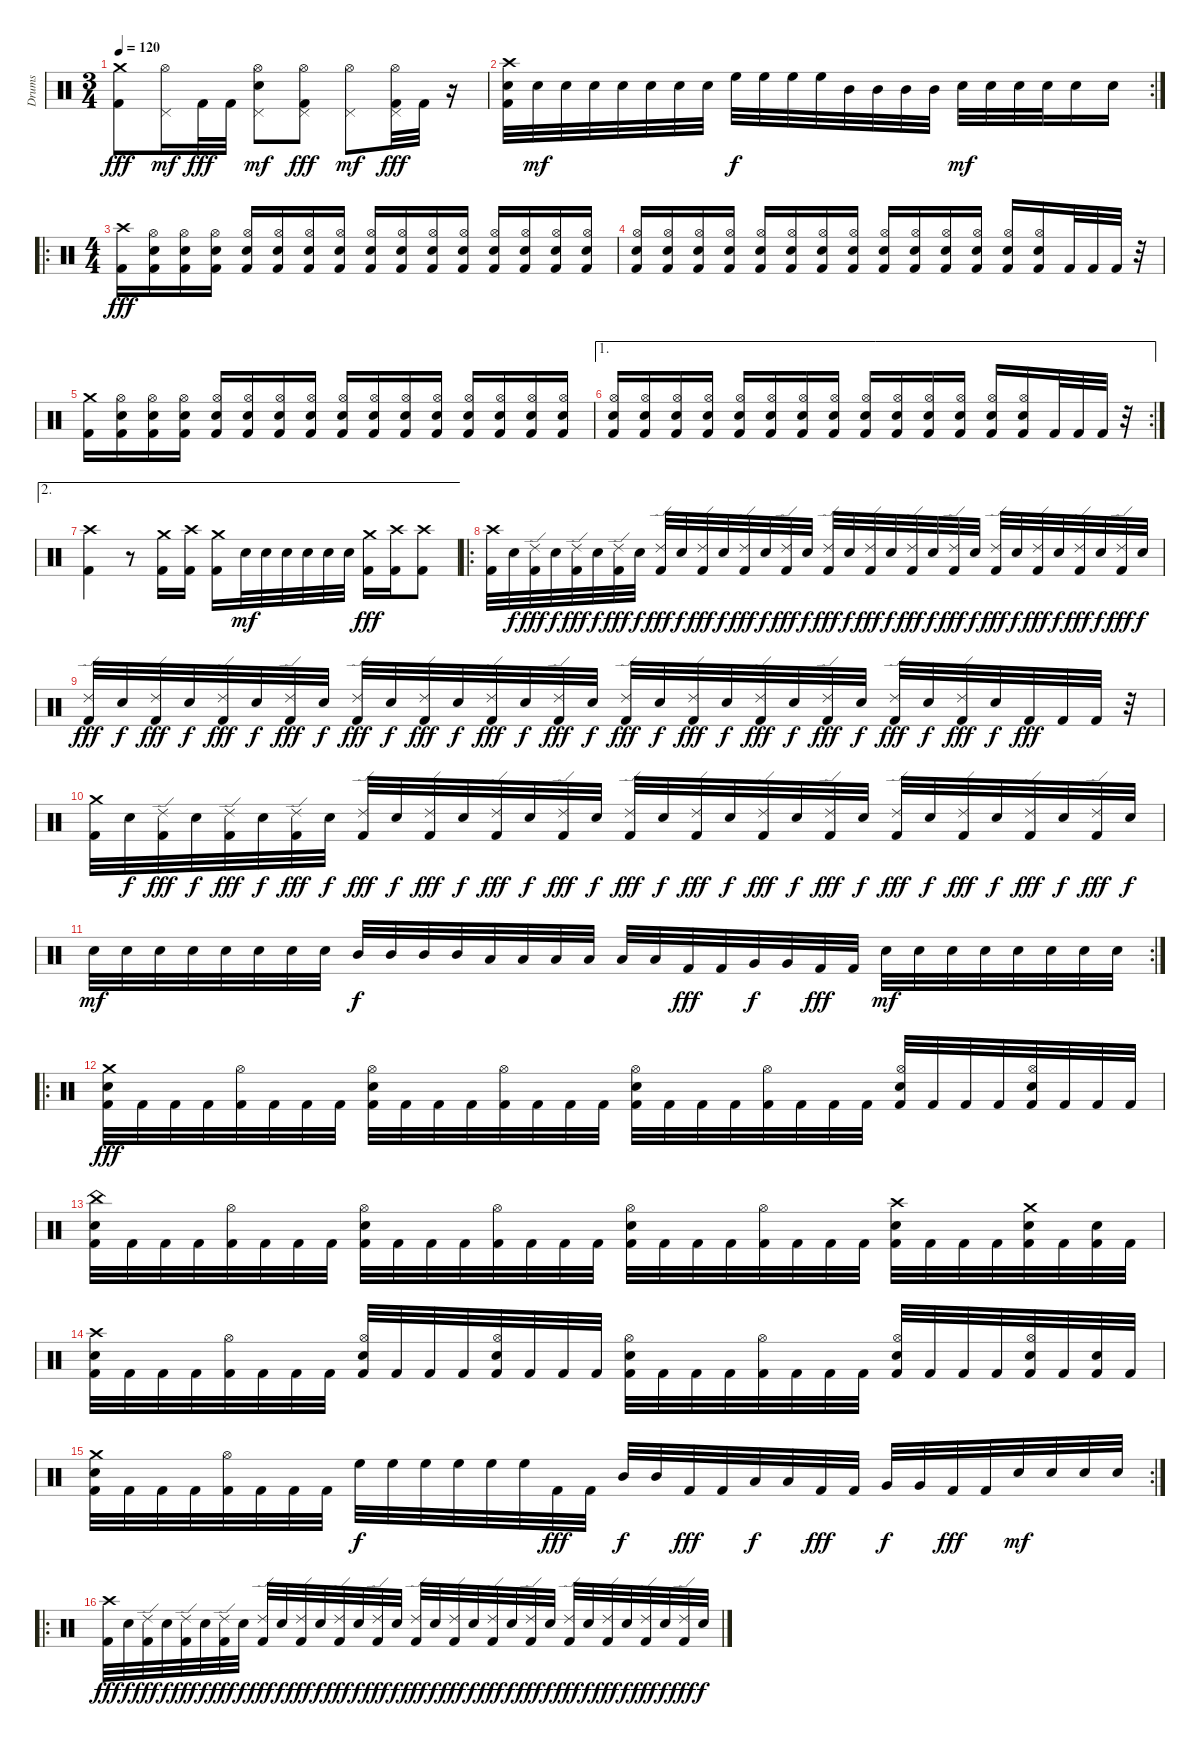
\track ("Drums" "Drums") {instrument percussion}
\staff {score}
\articulation defaults
\ts (3 4)
\tempo 120
\clef neutral
\ks c
("Crash medium (hit)" "Kick (hit) 2").8{dy fff} ("Pedal Hi-Hat (hit)" "Hi-Hat (open)").16{dy mf} "Kick (hit) 2".32{dy fff} "Kick (hit) 2".32 ("Pedal Hi-Hat (hit)" "Hi-Hat (open)" "Electric Snare (hit)").8{dy mf} ("Pedal Hi-Hat (hit)" "Hi-Hat (open)" "Kick (hit) 2").8{dy fff} ("Pedal Hi-Hat (hit)" "Hi-Hat (open)").8{dy mf} ("Pedal Hi-Hat (hit)" "Hi-Hat (open)" "Kick (hit) 2").32{dy fff} "Kick (hit) 2".32 r.16 |
\rc 2
("Crash high (hit)" "Electric Snare (hit)" "Kick (hit) 2").32 "Electric Snare (hit)".32{dy mf} "Electric Snare (hit)".32 "Electric Snare (hit)".32 "Electric Snare (hit)".32 "Electric Snare (hit)".32 "Electric Snare (hit)".32 "Electric Snare (hit)".32 "High Floor Tom (hit)".32{dy f} "High Floor Tom (hit)".32 "High Floor Tom (hit)".32 "High Floor Tom (hit)".32 "Mid Tom (hit)".32 "Mid Tom (hit)".32 "Mid Tom (hit)".32 "Mid Tom (hit)".32 "Electric Snare (hit)".32{dy mf} "Electric Snare (hit)".32 "Electric Snare (hit)".32 "Electric Snare (hit)".32 "Electric Snare (hit)".16 "Electric Snare (hit)".16 |
\ro
\ts (4 4)
("Crash high (hit)" "Kick (hit) 2").16{dy fff} ("Hi-Hat (open)" "Electric Snare (hit)" "Kick (hit) 2").16 ("Hi-Hat (open)" "Electric Snare (hit)" "Kick (hit) 2").16 ("Hi-Hat (open)" "Electric Snare (hit)" "Kick (hit) 2").16 ("Hi-Hat (open)" "Electric Snare (hit)" "Kick (hit) 2").16 ("Hi-Hat (open)" "Electric Snare (hit)" "Kick (hit) 2").16 ("Hi-Hat (open)" "Electric Snare (hit)" "Kick (hit) 2").16 ("Hi-Hat (open)" "Electric Snare (hit)" "Kick (hit) 2").16 ("Hi-Hat (open)" "Electric Snare (hit)" "Kick (hit) 2").16 ("Hi-Hat (open)" "Electric Snare (hit)" "Kick (hit) 2").16 ("Hi-Hat (open)" "Electric Snare (hit)" "Kick (hit) 2").16 ("Hi-Hat (open)" "Electric Snare (hit)" "Kick (hit) 2").16 ("Hi-Hat (open)" "Electric Snare (hit)" "Kick (hit) 2").16 ("Hi-Hat (open)" "Electric Snare (hit)" "Kick (hit) 2").16 ("Hi-Hat (open)" "Electric Snare (hit)" "Kick (hit) 2").16 ("Hi-Hat (open)" "Electric Snare (hit)" "Kick (hit) 2").16 |
("Hi-Hat (open)" "Electric Snare (hit)" "Kick (hit) 2").16 ("Hi-Hat (open)" "Electric Snare (hit)" "Kick (hit) 2").16 ("Hi-Hat (open)" "Electric Snare (hit)" "Kick (hit) 2").16 ("Hi-Hat (open)" "Electric Snare (hit)" "Kick (hit) 2").16 ("Hi-Hat (open)" "Electric Snare (hit)" "Kick (hit) 2").16 ("Hi-Hat (open)" "Electric Snare (hit)" "Kick (hit) 2").16 ("Hi-Hat (open)" "Electric Snare (hit)" "Kick (hit) 2").16 ("Hi-Hat (open)" "Electric Snare (hit)" "Kick (hit) 2").16 ("Hi-Hat (open)" "Electric Snare (hit)" "Kick (hit) 2").16 ("Hi-Hat (open)" "Electric Snare (hit)" "Kick (hit) 2").16 ("Hi-Hat (open)" "Electric Snare (hit)" "Kick (hit) 2").16 ("Hi-Hat (open)" "Electric Snare (hit)" "Kick (hit) 2").16 ("Hi-Hat (open)" "Electric Snare (hit)" "Kick (hit) 2").16 ("Hi-Hat (open)" "Electric Snare (hit)" "Kick (hit) 2").16 "Kick (hit) 2".32 "Kick (hit) 2".32 "Kick (hit) 2".32 r.32 |
("Crash medium (hit)" "Kick (hit) 2").16 ("Hi-Hat (open)" "Electric Snare (hit)" "Kick (hit) 2").16 ("Hi-Hat (open)" "Electric Snare (hit)" "Kick (hit) 2").16 ("Hi-Hat (open)" "Electric Snare (hit)" "Kick (hit) 2").16 ("Hi-Hat (open)" "Electric Snare (hit)" "Kick (hit) 2").16 ("Hi-Hat (open)" "Electric Snare (hit)" "Kick (hit) 2").16 ("Hi-Hat (open)" "Electric Snare (hit)" "Kick (hit) 2").16 ("Hi-Hat (open)" "Electric Snare (hit)" "Kick (hit) 2").16 ("Hi-Hat (open)" "Electric Snare (hit)" "Kick (hit) 2").16 ("Hi-Hat (open)" "Electric Snare (hit)" "Kick (hit) 2").16 ("Hi-Hat (open)" "Electric Snare (hit)" "Kick (hit) 2").16 ("Hi-Hat (open)" "Electric Snare (hit)" "Kick (hit) 2").16 ("Hi-Hat (open)" "Electric Snare (hit)" "Kick (hit) 2").16 ("Hi-Hat (open)" "Electric Snare (hit)" "Kick (hit) 2").16 ("Hi-Hat (open)" "Electric Snare (hit)" "Kick (hit) 2").16 ("Hi-Hat (open)" "Electric Snare (hit)" "Kick (hit) 2").16 |
\ae 1
\rc 2
("Hi-Hat (open)" "Electric Snare (hit)" "Kick (hit) 2").16 ("Hi-Hat (open)" "Electric Snare (hit)" "Kick (hit) 2").16 ("Hi-Hat (open)" "Electric Snare (hit)" "Kick (hit) 2").16 ("Hi-Hat (open)" "Electric Snare (hit)" "Kick (hit) 2").16 ("Hi-Hat (open)" "Electric Snare (hit)" "Kick (hit) 2").16 ("Hi-Hat (open)" "Electric Snare (hit)" "Kick (hit) 2").16 ("Hi-Hat (open)" "Electric Snare (hit)" "Kick (hit) 2").16 ("Hi-Hat (open)" "Electric Snare (hit)" "Kick (hit) 2").16 ("Hi-Hat (open)" "Electric Snare (hit)" "Kick (hit) 2").16 ("Hi-Hat (open)" "Electric Snare (hit)" "Kick (hit) 2").16 ("Hi-Hat (open)" "Electric Snare (hit)" "Kick (hit) 2").16 ("Hi-Hat (open)" "Electric Snare (hit)" "Kick (hit) 2").16 ("Hi-Hat (open)" "Electric Snare (hit)" "Kick (hit) 2").16 ("Hi-Hat (open)" "Electric Snare (hit)" "Kick (hit) 2").16 "Kick (hit) 2".32 "Kick (hit) 2".32 "Kick (hit) 2".32 r.32 |
\ae 2
("Crash high (hit)" "Kick (hit) 2").4 r.8 ("Crash medium (hit)" "Kick (hit) 2").16 ("Crash high (hit)" "Kick (hit) 2").16 ("Crash medium (hit)" "Kick (hit) 2").16 "Electric Snare (hit)".32{dy mf} "Electric Snare (hit)".32 "Electric Snare (hit)".32 "Electric Snare (hit)".32 "Electric Snare (hit)".32 "Electric Snare (hit)".32 ("Crash medium (hit)" "Kick (hit) 2").16{dy fff} ("Crash high (hit)" "Kick (hit) 2").16 ("Crash high (hit)" "Kick (hit) 2").8 |
\ro
("Crash high (hit)" "Kick (hit) 2").32 "Electric Snare (hit)".32{dy f} ("Ride (edge) 2" "Kick (hit) 2").32{dy fff} "Electric Snare (hit)".32{dy f} ("Ride (edge) 2" "Kick (hit) 2").32{dy fff} "Electric Snare (hit)".32{dy f} ("Ride (edge) 2" "Kick (hit) 2").32{dy fff} "Electric Snare (hit)".32{dy f} ("Ride (edge) 2" "Kick (hit) 2").32{dy fff} "Electric Snare (hit)".32{dy f} ("Ride (edge) 2" "Kick (hit) 2").32{dy fff} "Electric Snare (hit)".32{dy f} ("Ride (edge) 2" "Kick (hit) 2").32{dy fff} "Electric Snare (hit)".32{dy f} ("Ride (edge) 2" "Kick (hit) 2").32{dy fff} "Electric Snare (hit)".32{dy f} ("Ride (edge) 2" "Kick (hit) 2").32{dy fff} "Electric Snare (hit)".32{dy f} ("Ride (edge) 2" "Kick (hit) 2").32{dy fff} "Electric Snare (hit)".32{dy f} ("Ride (edge) 2" "Kick (hit) 2").32{dy fff} "Electric Snare (hit)".32{dy f} ("Ride (edge) 2" "Kick (hit) 2").32{dy fff} "Electric Snare (hit)".32{dy f} ("Ride (edge) 2" "Kick (hit) 2").32{dy fff} "Electric Snare (hit)".32{dy f} ("Ride (edge) 2" "Kick (hit) 2").32{dy fff} "Electric Snare (hit)".32{dy f} ("Ride (edge) 2" "Kick (hit) 2").32{dy fff} "Electric Snare (hit)".32{dy f} ("Ride (edge) 2" "Kick (hit) 2").32{dy fff} "Electric Snare (hit)".32{dy f} |
("Ride (edge) 2" "Kick (hit) 2").32{dy fff} "Electric Snare (hit)".32{dy f} ("Ride (edge) 2" "Kick (hit) 2").32{dy fff} "Electric Snare (hit)".32{dy f} ("Ride (edge) 2" "Kick (hit) 2").32{dy fff} "Electric Snare (hit)".32{dy f} ("Ride (edge) 2" "Kick (hit) 2").32{dy fff} "Electric Snare (hit)".32{dy f} ("Ride (edge) 2" "Kick (hit) 2").32{dy fff} "Electric Snare (hit)".32{dy f} ("Ride (edge) 2" "Kick (hit) 2").32{dy fff} "Electric Snare (hit)".32{dy f} ("Ride (edge) 2" "Kick (hit) 2").32{dy fff} "Electric Snare (hit)".32{dy f} ("Ride (edge) 2" "Kick (hit) 2").32{dy fff} "Electric Snare (hit)".32{dy f} ("Ride (edge) 2" "Kick (hit) 2").32{dy fff} "Electric Snare (hit)".32{dy f} ("Ride (edge) 2" "Kick (hit) 2").32{dy fff} "Electric Snare (hit)".32{dy f} ("Ride (edge) 2" "Kick (hit) 2").32{dy fff} "Electric Snare (hit)".32{dy f} ("Ride (edge) 2" "Kick (hit) 2").32{dy fff} "Electric Snare (hit)".32{dy f} ("Ride (edge) 2" "Kick (hit) 2").32{dy fff} "Electric Snare (hit)".32{dy f} ("Ride (edge) 2" "Kick (hit) 2").32{dy fff} "Electric Snare (hit)".32{dy f} "Kick (hit) 2".32{dy fff} "Kick (hit) 2".32 "Kick (hit) 2".32 r.32 |
("Crash medium (hit)" "Kick (hit) 2").32 "Electric Snare (hit)".32{dy f} ("Ride (edge) 2" "Kick (hit) 2").32{dy fff} "Electric Snare (hit)".32{dy f} ("Ride (edge) 2" "Kick (hit) 2").32{dy fff} "Electric Snare (hit)".32{dy f} ("Ride (edge) 2" "Kick (hit) 2").32{dy fff} "Electric Snare (hit)".32{dy f} ("Ride (edge) 2" "Kick (hit) 2").32{dy fff} "Electric Snare (hit)".32{dy f} ("Ride (edge) 2" "Kick (hit) 2").32{dy fff} "Electric Snare (hit)".32{dy f} ("Ride (edge) 2" "Kick (hit) 2").32{dy fff} "Electric Snare (hit)".32{dy f} ("Ride (edge) 2" "Kick (hit) 2").32{dy fff} "Electric Snare (hit)".32{dy f} ("Ride (edge) 2" "Kick (hit) 2").32{dy fff} "Electric Snare (hit)".32{dy f} ("Ride (edge) 2" "Kick (hit) 2").32{dy fff} "Electric Snare (hit)".32{dy f} ("Ride (edge) 2" "Kick (hit) 2").32{dy fff} "Electric Snare (hit)".32{dy f} ("Ride (edge) 2" "Kick (hit) 2").32{dy fff} "Electric Snare (hit)".32{dy f} ("Ride (edge) 2" "Kick (hit) 2").32{dy fff} "Electric Snare (hit)".32{dy f} ("Ride (edge) 2" "Kick (hit) 2").32{dy fff} "Electric Snare (hit)".32{dy f} ("Ride (edge) 2" "Kick (hit) 2").32{dy fff} "Electric Snare (hit)".32{dy f} ("Ride (edge) 2" "Kick (hit) 2").32{dy fff} "Electric Snare (hit)".32{dy f} |
\rc 2 "Electric Snare (hit)".32{dy mf} "Electric Snare (hit)".32 "Electric Snare (hit)".32 "Electric Snare (hit)".32 "Electric Snare (hit)".32 "Electric Snare (hit)".32 "Electric Snare (hit)".32 "Electric Snare (hit)".32 "Mid Tom (hit)".32{dy f} "Mid Tom (hit)".32 "Mid Tom (hit)".32 "Mid Tom (hit)".32 "Low Tom (hit)".32 "Low Tom (hit)".32 "Low Tom (hit)".32 "Low Tom (hit)".32 "Low Tom (hit)".32 "Low Tom (hit)".32 "Kick (hit) 2".32{dy fff} "Kick (hit) 2".32 "Very Low Tom (hit)".32{dy f} "Very Low Tom (hit)".32 "Kick (hit) 2".32{dy fff} "Kick (hit) 2".32 "Electric Snare (hit)".32{dy mf} "Electric Snare (hit)".32 "Electric Snare (hit)".32 "Electric Snare (hit)".32 "Electric Snare (hit)".32 "Electric Snare (hit)".32 "Electric Snare (hit)".32 "Electric Snare (hit)".32
|
\ro
("Crash medium (hit)" "Electric Snare (hit)" "Kick (hit) 2").32{dy fff} "Kick (hit) 2".32 "Kick (hit) 2".32 "Kick (hit) 2".32 ("Hi-Hat (open)" "Kick (hit) 2").32 "Kick (hit) 2".32 "Kick (hit) 2".32 "Kick (hit) 2".32 ("Hi-Hat (open)" "Electric Snare (hit)" "Kick (hit) 2").32 "Kick (hit) 2".32 "Kick (hit) 2".32 "Kick (hit) 2".32 ("Hi-Hat (open)" "Kick (hit) 2").32 "Kick (hit) 2".32 "Kick (hit) 2".32 "Kick (hit) 2".32 ("Hi-Hat (open)" "Electric Snare (hit)" "Kick (hit) 2").32 "Kick (hit) 2".32 "Kick (hit) 2".32 "Kick (hit) 2".32 ("Hi-Hat (open)" "Kick (hit) 2").32 "Kick (hit) 2".32 "Kick (hit) 2".32 "Kick (hit) 2".32 ("Hi-Hat (open)" "Electric Snare (hit)" "Kick (hit) 2").32 "Kick (hit) 2".32 "Kick (hit) 2".32 "Kick (hit) 2".32 ("Hi-Hat (open)" "Electric Snare (hit)" "Kick (hit) 2").32 "Kick (hit) 2".32 "Kick (hit) 2".32 "Kick (hit) 2".32 |
("China (hit)" "Electric Snare (hit)" "Kick (hit) 2").32 "Kick (hit) 2".32 "Kick (hit) 2".32 "Kick (hit) 2".32 ("Hi-Hat (open)" "Kick (hit) 2").32 "Kick (hit) 2".32 "Kick (hit) 2".32 "Kick (hit) 2".32 ("Hi-Hat (open)" "Electric Snare (hit)" "Kick (hit) 2").32 "Kick (hit) 2".32 "Kick (hit) 2".32 "Kick (hit) 2".32 ("Hi-Hat (open)" "Kick (hit) 2").32 "Kick (hit) 2".32 "Kick (hit) 2".32 "Kick (hit) 2".32 ("Hi-Hat (open)" "Electric Snare (hit)" "Kick (hit) 2").32 "Kick (hit) 2".32 "Kick (hit) 2".32 "Kick (hit) 2".32 ("Hi-Hat (open)" "Kick (hit) 2").32 "Kick (hit) 2".32 "Kick (hit) 2".32 "Kick (hit) 2".32 ("Crash high (hit)" "Electric Snare (hit)" "Kick (hit) 2").32 "Kick (hit) 2".32 "Kick (hit) 2".32 "Kick (hit) 2".32 ("Crash medium (hit)" "Electric Snare (hit)" "Kick (hit) 2").32 "Kick (hit) 2".32 ("Electric Snare (hit)" "Kick (hit) 2").32 "Kick (hit) 2".32 |
("Crash high (hit)" "Electric Snare (hit)" "Kick (hit) 2").32 "Kick (hit) 2".32 "Kick (hit) 2".32 "Kick (hit) 2".32 ("Hi-Hat (open)" "Kick (hit) 2").32 "Kick (hit) 2".32 "Kick (hit) 2".32 "Kick (hit) 2".32 ("Hi-Hat (open)" "Electric Snare (hit)" "Kick (hit) 2").32 "Kick (hit) 2".32 "Kick (hit) 2".32 "Kick (hit) 2".32 ("Hi-Hat (open)" "Electric Snare (hit)" "Kick (hit) 2").32 "Kick (hit) 2".32 "Kick (hit) 2".32 "Kick (hit) 2".32 ("Hi-Hat (open)" "Electric Snare (hit)" "Kick (hit) 2").32 "Kick (hit) 2".32 "Kick (hit) 2".32 "Kick (hit) 2".32 ("Hi-Hat (open)" "Kick (hit) 2").32 "Kick (hit) 2".32 "Kick (hit) 2".32 "Kick (hit) 2".32 ("Hi-Hat (open)" "Electric Snare (hit)" "Kick (hit) 2").32 "Kick (hit) 2".32 "Kick (hit) 2".32 "Kick (hit) 2".32 ("Hi-Hat (open)" "Electric Snare (hit)" "Kick (hit) 2").32 "Kick (hit) 2".32 ("Electric Snare (hit)" "Kick (hit) 2").32 "Kick (hit) 2".32 |
\rc 2
("Crash medium (hit)" "Electric Snare (hit)" "Kick (hit) 2").32 "Kick (hit) 2".32 "Kick (hit) 2".32 "Kick (hit) 2".32 ("Hi-Hat (open)" "Kick (hit) 2").32 "Kick (hit) 2".32 "Kick (hit) 2".32 "Kick (hit) 2".32 "High Floor Tom (hit)".32{dy f} "High Floor Tom (hit)".32 "High Floor Tom (hit)".32 "High Floor Tom (hit)".32 "High Floor Tom (hit)".32 "High Floor Tom (hit)".32 "Kick (hit) 2".32{dy fff} "Kick (hit) 2".32 "Mid Tom (hit)".32{dy f} "Mid Tom (hit)".32 "Kick (hit) 2".32{dy fff} "Kick (hit) 2".32 "Low Tom (hit)".32{dy f} "Low Tom (hit)".32 "Kick (hit) 2".32{dy fff} "Kick (hit) 2".32 "Very Low Tom (hit)".32{dy f} "Very Low Tom (hit)".32 "Kick (hit) 2".32{dy fff} "Kick (hit) 2".32 "Electric Snare (hit)".32{dy mf} "Electric Snare (hit)".32 "Electric Snare (hit)".32 "Electric Snare (hit)".32 |
\ro
("Crash high (hit)" "Kick (hit) 2").32{dy fff} "Electric Snare (hit)".32{dy f} ("Ride (edge) 2" "Kick (hit) 2").32{dy fff} "Electric Snare (hit)".32{dy f} ("Ride (edge) 2" "Kick (hit) 2").32{dy fff} "Electric Snare (hit)".32{dy f} ("Ride (edge) 2" "Kick (hit) 2").32{dy fff} "Electric Snare (hit)".32{dy f} ("Ride (edge) 2" "Kick (hit) 2").32{dy fff} "Electric Snare (hit)".32{dy f} ("Ride (edge) 2" "Kick (hit) 2").32{dy fff} "Electric Snare (hit)".32{dy f} ("Ride (edge) 2" "Kick (hit) 2").32{dy fff} "Electric Snare (hit)".32{dy f} ("Ride (edge) 2" "Kick (hit) 2").32{dy fff} "Electric Snare (hit)".32{dy f} ("Ride (edge) 2" "Kick (hit) 2").32{dy fff} "Electric Snare (hit)".32{dy f} ("Ride (edge) 2" "Kick (hit) 2").32{dy fff} "Electric Snare (hit)".32{dy f} ("Ride (edge) 2" "Kick (hit) 2").32{dy fff} "Electric Snare (hit)".32{dy f} ("Ride (edge) 2" "Kick (hit) 2").32{dy fff} "Electric Snare (hit)".32{dy f} ("Ride (edge) 2" "Kick (hit) 2").32{dy fff} "Electric Snare (hit)".32{dy f} ("Ride (edge) 2" "Kick (hit) 2").32{dy fff} "Electric Snare (hit)".32{dy f} ("Ride (edge) 2" "Kick (hit) 2").32{dy fff} "Electric Snare (hit)".32{dy f} ("Ride (edge) 2" "Kick (hit) 2").32{dy fff} "Electric Snare (hit)".32{dy f}
